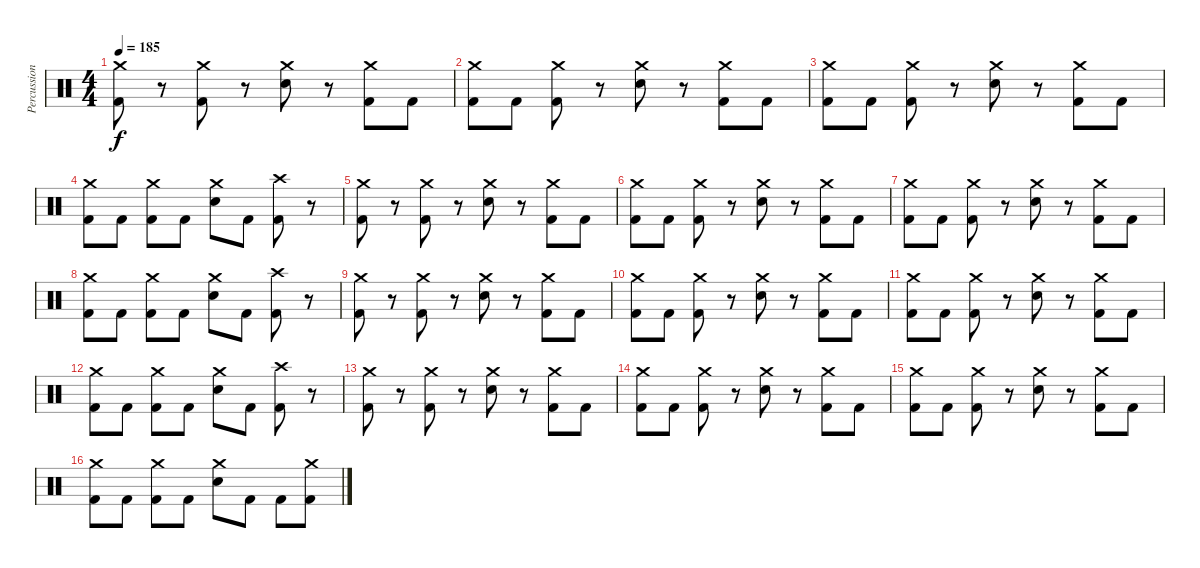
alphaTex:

\track ("Percussions" "Percussion") {instrument percussion}
\staff {score}
\articulation defaults
\ts (4 4)
\tempo 185
\clef neutral
\ks c
("Kick (hit) 2" "Crash medium (hit)").8{dy f} r.8 ("Kick (hit) 2" "Crash medium (hit)").8 r.8 ("Electric Snare (hit)" "Crash medium (hit)").8 r.8 ("Kick (hit) 2" "Crash medium (hit)").8 "Kick (hit) 2".8 |
("Kick (hit) 2" "Crash medium (hit)").8 "Kick (hit) 2".8 ("Kick (hit) 2" "Crash medium (hit)").8 r.8 ("Electric Snare (hit)" "Crash medium (hit)").8 r.8 ("Kick (hit) 2" "Crash medium (hit)").8 "Kick (hit) 2".8 |
("Kick (hit) 2" "Crash medium (hit)").8 "Kick (hit) 2".8 ("Kick (hit) 2" "Crash medium (hit)").8 r.8 ("Electric Snare (hit)" "Crash medium (hit)").8 r.8 ("Kick (hit) 2" "Crash medium (hit)").8 "Kick (hit) 2".8 |
("Kick (hit) 2" "Crash medium (hit)").8 "Kick (hit) 2".8 ("Kick (hit) 2" "Crash medium (hit)").8 "Kick (hit) 2".8 ("Electric Snare (hit)" "Crash medium (hit)").8 "Kick (hit) 2".8 ("Kick (hit) 2" "Crash high (hit)").8 r.8 |
("Kick (hit) 2" "Crash medium (hit)").8 r.8 ("Kick (hit) 2" "Crash medium (hit)").8 r.8 ("Electric Snare (hit)" "Crash medium (hit)").8 r.8 ("Kick (hit) 2" "Crash medium (hit)").8 "Kick (hit) 2".8 |
("Kick (hit) 2" "Crash medium (hit)").8 "Kick (hit) 2".8 ("Kick (hit) 2" "Crash medium (hit)").8 r.8 ("Electric Snare (hit)" "Crash medium (hit)").8 r.8 ("Kick (hit) 2" "Crash medium (hit)").8 "Kick (hit) 2".8 |
("Kick (hit) 2" "Crash medium (hit)").8 "Kick (hit) 2".8 ("Kick (hit) 2" "Crash medium (hit)").8 r.8 ("Electric Snare (hit)" "Crash medium (hit)").8 r.8 ("Kick (hit) 2" "Crash medium (hit)").8 "Kick (hit) 2".8 |
("Kick (hit) 2" "Crash medium (hit)").8 "Kick (hit) 2".8 ("Kick (hit) 2" "Crash medium (hit)").8 "Kick (hit) 2".8 ("Electric Snare (hit)" "Crash medium (hit)").8 "Kick (hit) 2".8 ("Kick (hit) 2" "Crash high (hit)").8 r.8 |
("Kick (hit) 2" "Crash medium (hit)").8 r.8 ("Kick (hit) 2" "Crash medium (hit)").8 r.8 ("Electric Snare (hit)" "Crash medium (hit)").8 r.8 ("Kick (hit) 2" "Crash medium (hit)").8 "Kick (hit) 2".8 |
("Kick (hit) 2" "Crash medium (hit)").8 "Kick (hit) 2".8 ("Kick (hit) 2" "Crash medium (hit)").8 r.8 ("Electric Snare (hit)" "Crash medium (hit)").8 r.8 ("Kick (hit) 2" "Crash medium (hit)").8 "Kick (hit) 2".8 |
("Kick (hit) 2" "Crash medium (hit)").8 "Kick (hit) 2".8 ("Kick (hit) 2" "Crash medium (hit)").8 r.8 ("Electric Snare (hit)" "Crash medium (hit)").8 r.8 ("Kick (hit) 2" "Crash medium (hit)").8 "Kick (hit) 2".8 |
("Kick (hit) 2" "Crash medium (hit)").8 "Kick (hit) 2".8 ("Kick (hit) 2" "Crash medium (hit)").8 "Kick (hit) 2".8 ("Electric Snare (hit)" "Crash medium (hit)").8 "Kick (hit) 2".8 ("Kick (hit) 2" "Crash high (hit)").8 r.8 |
("Kick (hit) 2" "Crash medium (hit)").8 r.8 ("Kick (hit) 2" "Crash medium (hit)").8 r.8 ("Electric Snare (hit)" "Crash medium (hit)").8 r.8 ("Kick (hit) 2" "Crash medium (hit)").8 "Kick (hit) 2".8 |
("Kick (hit) 2" "Crash medium (hit)").8 "Kick (hit) 2".8 ("Kick (hit) 2" "Crash medium (hit)").8 r.8 ("Electric Snare (hit)" "Crash medium (hit)").8 r.8 ("Kick (hit) 2" "Crash medium (hit)").8 "Kick (hit) 2".8 |
("Kick (hit) 2" "Crash medium (hit)").8 "Kick (hit) 2".8 ("Kick (hit) 2" "Crash medium (hit)").8 r.8 ("Electric Snare (hit)" "Crash medium (hit)").8 r.8 ("Kick (hit) 2" "Crash medium (hit)").8 "Kick (hit) 2".8 |
("Kick (hit) 2" "Crash medium (hit)").8 "Kick (hit) 2".8 ("Kick (hit) 2" "Crash medium (hit)").8 "Kick (hit) 2".8 ("Electric Snare (hit)" "Crash medium (hit)").8 "Kick (hit) 2".8 "Kick (hit) 2".8 ("Kick (hit) 2" "Crash medium (hit)").8
